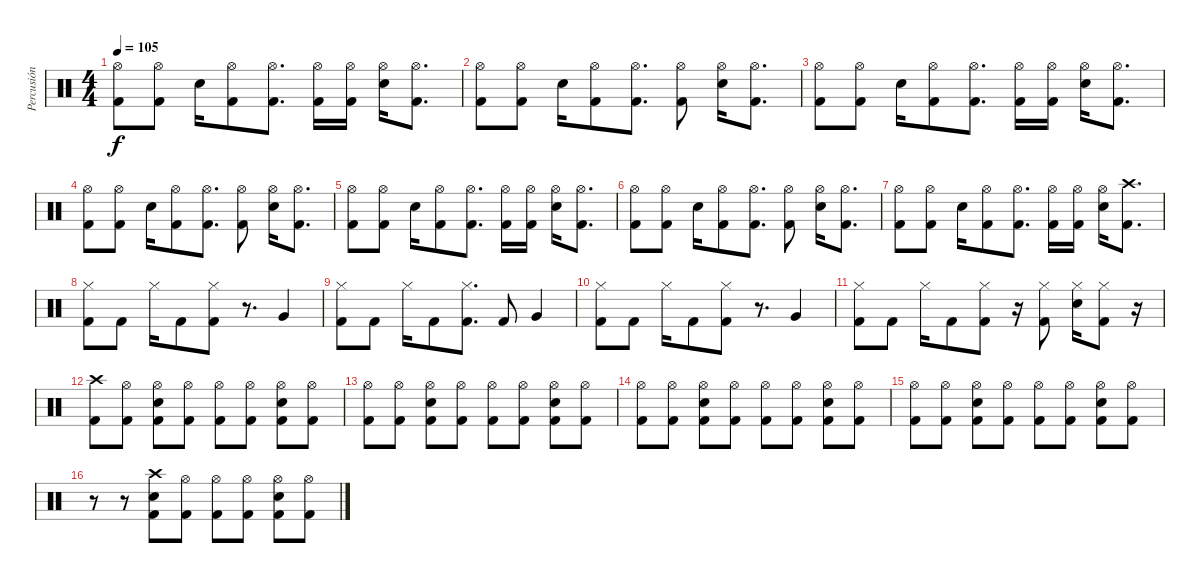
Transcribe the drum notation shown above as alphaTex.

\track ("Percusión" "Percusión") {instrument percussion}
\staff {score}
\articulation defaults
\ts (4 4)
\tempo 105
\clef neutral
\ks c
("Hi-Hat (open)" "Kick (hit) 2").8{dy f} ("Hi-Hat (open)" "Kick (hit) 2").8 "Electric Snare (hit)".16 ("Hi-Hat (open)" "Kick (hit) 2").8 ("Hi-Hat (open)" "Kick (hit) 2").8{d} ("Hi-Hat (open)" "Kick (hit) 2").16 ("Hi-Hat (open)" "Kick (hit) 2").16 ("Hi-Hat (open)" "Electric Snare (hit)").16 ("Hi-Hat (open)" "Kick (hit) 2").8{d} |
("Hi-Hat (open)" "Kick (hit) 2").8 ("Hi-Hat (open)" "Kick (hit) 2").8 "Electric Snare (hit)".16 ("Hi-Hat (open)" "Kick (hit) 2").8 ("Hi-Hat (open)" "Kick (hit) 2").8{d} ("Hi-Hat (open)" "Kick (hit) 2").8 ("Hi-Hat (open)" "Electric Snare (hit)").16 ("Hi-Hat (open)" "Kick (hit) 2").8{d} |
("Hi-Hat (open)" "Kick (hit) 2").8 ("Hi-Hat (open)" "Kick (hit) 2").8 "Electric Snare (hit)".16 ("Hi-Hat (open)" "Kick (hit) 2").8 ("Hi-Hat (open)" "Kick (hit) 2").8{d} ("Hi-Hat (open)" "Kick (hit) 2").16 ("Hi-Hat (open)" "Kick (hit) 2").16 ("Hi-Hat (open)" "Electric Snare (hit)").16 ("Hi-Hat (open)" "Kick (hit) 2").8{d} |
("Hi-Hat (open)" "Kick (hit) 2").8 ("Hi-Hat (open)" "Kick (hit) 2").8 "Electric Snare (hit)".16 ("Hi-Hat (open)" "Kick (hit) 2").8 ("Hi-Hat (open)" "Kick (hit) 2").8{d} ("Hi-Hat (open)" "Kick (hit) 2").8 ("Hi-Hat (open)" "Electric Snare (hit)").16 ("Hi-Hat (open)" "Kick (hit) 2").8{d} |
("Hi-Hat (open)" "Kick (hit) 2").8 ("Hi-Hat (open)" "Kick (hit) 2").8 "Electric Snare (hit)".16 ("Hi-Hat (open)" "Kick (hit) 2").8 ("Hi-Hat (open)" "Kick (hit) 2").8{d} ("Hi-Hat (open)" "Kick (hit) 2").16 ("Hi-Hat (open)" "Kick (hit) 2").16 ("Hi-Hat (open)" "Electric Snare (hit)").16 ("Hi-Hat (open)" "Kick (hit) 2").8{d} |
("Hi-Hat (open)" "Kick (hit) 2").8 ("Hi-Hat (open)" "Kick (hit) 2").8 "Electric Snare (hit)".16 ("Hi-Hat (open)" "Kick (hit) 2").8 ("Hi-Hat (open)" "Kick (hit) 2").8{d} ("Hi-Hat (open)" "Kick (hit) 2").8 ("Hi-Hat (open)" "Electric Snare (hit)").16 ("Hi-Hat (open)" "Kick (hit) 2").8{d} |
("Hi-Hat (open)" "Kick (hit) 2").8 ("Hi-Hat (open)" "Kick (hit) 2").8 "Electric Snare (hit)".16 ("Hi-Hat (open)" "Kick (hit) 2").8 ("Hi-Hat (open)" "Kick (hit) 2").8{d} ("Hi-Hat (open)" "Kick (hit) 2").16 ("Hi-Hat (open)" "Kick (hit) 2").16 ("Hi-Hat (open)" "Electric Snare (hit)").16 ("Crash high (hit)" "Kick (hit) 2").8{d} |
("Hi-Hat (closed)" "Kick (hit) 2").8{volume 10} "Kick (hit) 2".8 "Hi-Hat (closed)".16 "Kick (hit) 2".8 ("Hi-Hat (closed)" "Kick (hit) 2").8 r.8{d} "Very Low Tom (hit)".4 |
("Hi-Hat (closed)" "Kick (hit) 2").8 "Kick (hit) 2".8 "Hi-Hat (closed)".16 "Kick (hit) 2".8 ("Hi-Hat (closed)" "Kick (hit) 2").8{d} "Kick (hit) 2".8 "Very Low Tom (hit)".4 |
("Hi-Hat (closed)" "Kick (hit) 2").8 "Kick (hit) 2".8 "Hi-Hat (closed)".16 "Kick (hit) 2".8 ("Hi-Hat (closed)" "Kick (hit) 2").8 r.8{d} "Very Low Tom (hit)".4 |
("Hi-Hat (closed)" "Kick (hit) 2").8 "Kick (hit) 2".8 "Hi-Hat (closed)".16 "Kick (hit) 2".8 ("Hi-Hat (closed)" "Kick (hit) 2").8 r.16 ("Hi-Hat (closed)" "Kick (hit) 2").8{volume 15} ("Hi-Hat (closed)" "Electric Snare (hit)").16 ("Hi-Hat (closed)" "Kick (hit) 2").8 r.16 |
("Crash high (hit)" "Kick (hit) 2").8 ("Hi-Hat (open)" "Kick (hit) 2").8 ("Hi-Hat (open)" "Electric Snare (hit)" "Kick (hit) 2").8 ("Hi-Hat (open)" "Kick (hit) 2").8 ("Hi-Hat (open)" "Kick (hit) 2").8 ("Hi-Hat (open)" "Kick (hit) 2").8 ("Hi-Hat (open)" "Electric Snare (hit)" "Kick (hit) 2").8 ("Hi-Hat (open)" "Kick (hit) 2").8 |
("Hi-Hat (open)" "Kick (hit) 2").8 ("Hi-Hat (open)" "Kick (hit) 2").8 ("Hi-Hat (open)" "Electric Snare (hit)" "Kick (hit) 2").8 ("Hi-Hat (open)" "Kick (hit) 2").8 ("Hi-Hat (open)" "Kick (hit) 2").8 ("Hi-Hat (open)" "Kick (hit) 2").8 ("Hi-Hat (open)" "Electric Snare (hit)" "Kick (hit) 2").8 ("Hi-Hat (open)" "Kick (hit) 2").8 |
("Hi-Hat (open)" "Kick (hit) 2").8 ("Hi-Hat (open)" "Kick (hit) 2").8 ("Hi-Hat (open)" "Electric Snare (hit)" "Kick (hit) 2").8 ("Hi-Hat (open)" "Kick (hit) 2").8 ("Hi-Hat (open)" "Kick (hit) 2").8 ("Hi-Hat (open)" "Kick (hit) 2").8 ("Hi-Hat (open)" "Electric Snare (hit)" "Kick (hit) 2").8 ("Hi-Hat (open)" "Kick (hit) 2").8 |
("Hi-Hat (open)" "Kick (hit) 2").8 ("Hi-Hat (open)" "Kick (hit) 2").8 ("Hi-Hat (open)" "Electric Snare (hit)" "Kick (hit) 2").8 ("Hi-Hat (open)" "Kick (hit) 2").8 ("Hi-Hat (open)" "Kick (hit) 2").8 ("Hi-Hat (open)" "Kick (hit) 2").8 ("Hi-Hat (open)" "Electric Snare (hit)" "Kick (hit) 2").8 ("Hi-Hat (open)" "Kick (hit) 2").8 |
r.8 r.8 ("Crash high (hit)" "Electric Snare (hit)" "Kick (hit) 2").8 ("Hi-Hat (open)" "Kick (hit) 2").8 ("Hi-Hat (open)" "Kick (hit) 2").8 ("Hi-Hat (open)" "Kick (hit) 2").8 ("Hi-Hat (open)" "Electric Snare (hit)" "Kick (hit) 2").8 ("Hi-Hat (open)" "Kick (hit) 2").8
